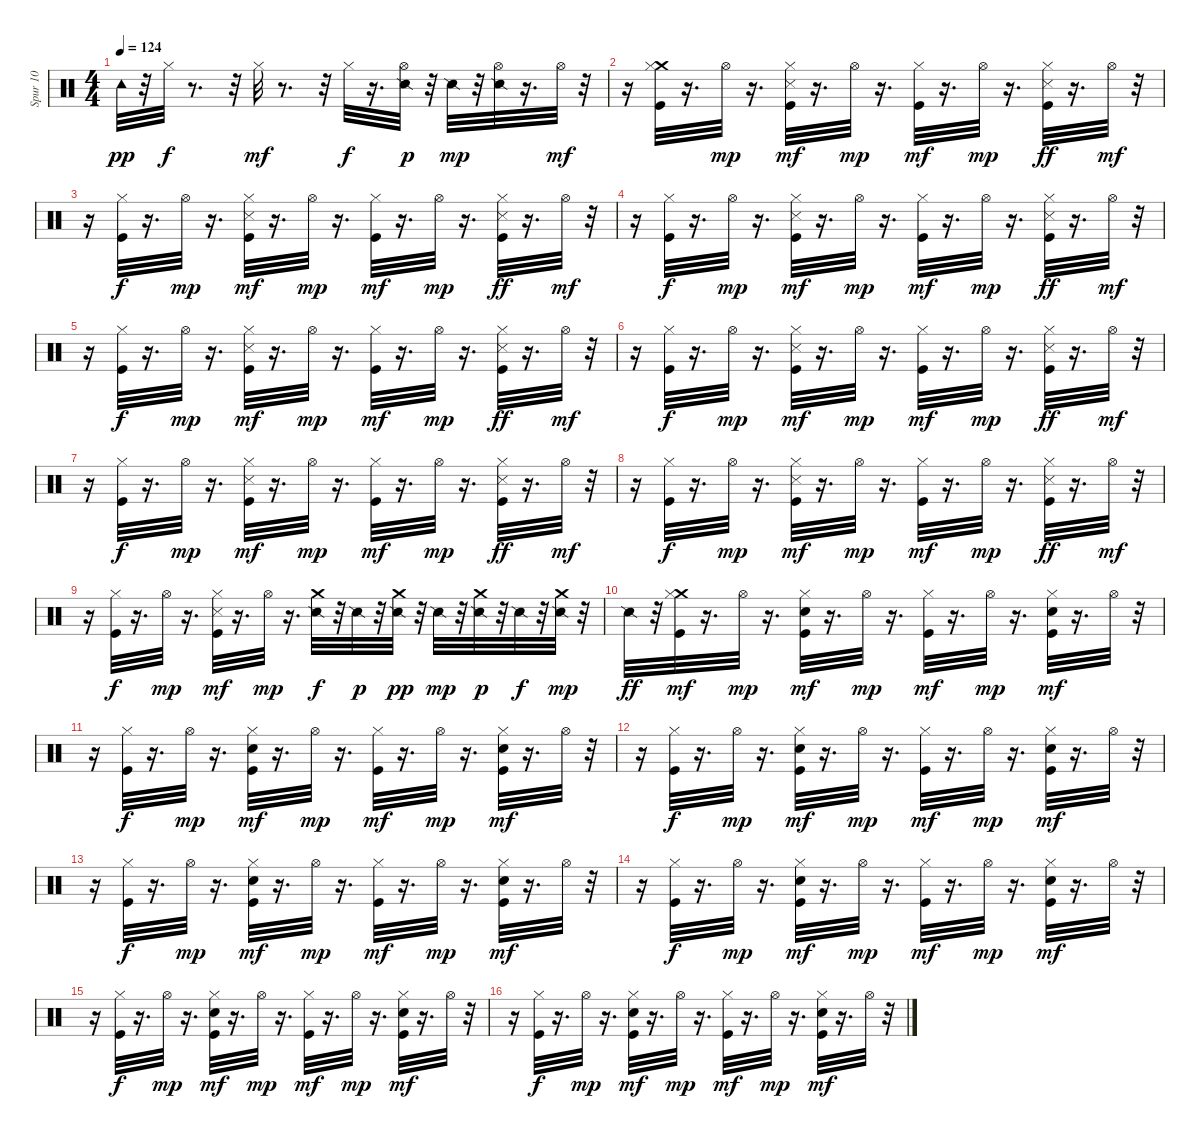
\track ("Spur 10" "Spur 10") {instrument percussion}
\staff {score}
\articulation defaults
\ts (4 4)
\tempo 124
\clef neutral
\ks c "Tambourine (hit)".32{dy pp}
r.32 "Hi-Hat (closed)".32{dy f} r.8{d} r.32 "Hi-Hat (closed)".32{dy mf} r.8{d} r.32 "Hi-Hat (closed)".32{dy f} r.16{d} ("Snare (side stick) 2" "Hi-Hat (open)").32{dy p balance 10} r.32 "Snare (side stick) 2".32{dy mp} r.32 ("Snare (side stick) 2" "Hi-Hat (open)").32{balance 6} r.16{d} "Hi-Hat (open)".32{dy mf balance 8} r.32 |
r.16 ("Crash medium (hit)" "Kick (hit)" "Hi-Hat (closed)").32 r.16{d} "Hi-Hat (open)".32{dy mp} r.16{d} ("Kick (hit)" "Snare (side stick) 3" "Hi-Hat (closed)").32{dy mf} r.16{d} "Hi-Hat (open)".32{dy mp} r.16{d} ("Kick (hit)" "Hi-Hat (closed)").32{dy mf} r.16{d} "Hi-Hat (open)".32{dy mp} r.16{d} ("Kick (hit)" "Snare (side stick) 3" "Hi-Hat (closed)").32{dy ff} r.16{d} "Hi-Hat (open)".32{dy mf} r.32 |
r.16 ("Kick (hit)" "Hi-Hat (closed)").32{dy f} r.16{d} "Hi-Hat (open)".32{dy mp} r.16{d} ("Kick (hit)" "Snare (side stick) 3" "Hi-Hat (closed)").32{dy mf} r.16{d} "Hi-Hat (open)".32{dy mp} r.16{d} ("Kick (hit)" "Hi-Hat (closed)").32{dy mf} r.16{d} "Hi-Hat (open)".32{dy mp} r.16{d} ("Kick (hit)" "Snare (side stick) 3" "Hi-Hat (closed)").32{dy ff} r.16{d} "Hi-Hat (open)".32{dy mf} r.32 |
r.16 ("Kick (hit)" "Hi-Hat (closed)").32{dy f} r.16{d} "Hi-Hat (open)".32{dy mp} r.16{d} ("Kick (hit)" "Snare (side stick) 3" "Hi-Hat (closed)").32{dy mf} r.16{d} "Hi-Hat (open)".32{dy mp} r.16{d} ("Kick (hit)" "Hi-Hat (closed)").32{dy mf} r.16{d} "Hi-Hat (open)".32{dy mp} r.16{d} ("Kick (hit)" "Snare (side stick) 3" "Hi-Hat (closed)").32{dy ff} r.16{d} "Hi-Hat (open)".32{dy mf} r.32 |
r.16 ("Kick (hit)" "Hi-Hat (closed)").32{dy f} r.16{d} "Hi-Hat (open)".32{dy mp} r.16{d} ("Kick (hit)" "Snare (side stick) 3" "Hi-Hat (closed)").32{dy mf} r.16{d} "Hi-Hat (open)".32{dy mp} r.16{d} ("Kick (hit)" "Hi-Hat (closed)").32{dy mf} r.16{d} "Hi-Hat (open)".32{dy mp} r.16{d} ("Kick (hit)" "Snare (side stick) 3" "Hi-Hat (closed)").32{dy ff} r.16{d} "Hi-Hat (open)".32{dy mf} r.32 |
r.16 ("Kick (hit)" "Hi-Hat (closed)").32{dy f} r.16{d} "Hi-Hat (open)".32{dy mp} r.16{d} ("Kick (hit)" "Snare (side stick) 3" "Hi-Hat (closed)").32{dy mf} r.16{d} "Hi-Hat (open)".32{dy mp} r.16{d} ("Kick (hit)" "Hi-Hat (closed)").32{dy mf} r.16{d} "Hi-Hat (open)".32{dy mp} r.16{d} ("Kick (hit)" "Snare (side stick) 3" "Hi-Hat (closed)").32{dy ff} r.16{d} "Hi-Hat (open)".32{dy mf} r.32 |
r.16 ("Kick (hit)" "Hi-Hat (closed)").32{dy f} r.16{d} "Hi-Hat (open)".32{dy mp} r.16{d} ("Kick (hit)" "Snare (side stick) 3" "Hi-Hat (closed)").32{dy mf} r.16{d} "Hi-Hat (open)".32{dy mp} r.16{d} ("Kick (hit)" "Hi-Hat (closed)").32{dy mf} r.16{d} "Hi-Hat (open)".32{dy mp} r.16{d} ("Kick (hit)" "Snare (side stick) 3" "Hi-Hat (closed)").32{dy ff} r.16{d} "Hi-Hat (open)".32{dy mf} r.32 |
r.16 ("Kick (hit)" "Hi-Hat (closed)").32{dy f} r.16{d} "Hi-Hat (open)".32{dy mp} r.16{d} ("Kick (hit)" "Snare (side stick) 3" "Hi-Hat (closed)").32{dy mf} r.16{d} "Hi-Hat (open)".32{dy mp} r.16{d} ("Kick (hit)" "Hi-Hat (closed)").32{dy mf} r.16{d} "Hi-Hat (open)".32{dy mp} r.16{d} ("Kick (hit)" "Snare (side stick) 3" "Hi-Hat (closed)").32{dy ff} r.16{d} "Hi-Hat (open)".32{dy mf} r.32 |
r.16 ("Kick (hit)" "Hi-Hat (closed)").32{dy f} r.16{d} "Hi-Hat (open)".32{dy mp} r.16{d} ("Kick (hit)" "Snare (side stick) 3" "Hi-Hat (closed)").32{dy mf} r.16{d} "Hi-Hat (open)".32{dy mp} r.16{d} ("Snare (side stick) 2" "Crash medium (hit)").32{dy f balance 12} r.32 "Snare (side stick) 2".32{dy p} r.32 ("Snare (side stick) 2" "Crash medium (hit)").32{dy pp balance 10} r.32 "Snare (side stick) 2".32{dy mp} r.32 ("Snare (side stick) 2" "Crash medium (hit)").32{dy p balance 6} r.32 "Snare (side stick) 2".32{dy f} r.32 ("Snare (side stick) 2" "Crash medium (hit)").32{dy mp balance 2} r.32 |
"Snare (side stick) 2".32{dy ff} r.32 ("Crash medium (hit)" "Kick (hit)" "Hi-Hat (closed)").32{dy mf balance 8} r.16{d} "Hi-Hat (open)".32{dy mp} r.16{d} ("Kick (hit)" "Snare (hit) 2" "Hi-Hat (closed)").32{dy mf} r.16{d} "Hi-Hat (open)".32{dy mp} r.16{d} ("Kick (hit)" "Hi-Hat (closed)").32{dy mf} r.16{d} "Hi-Hat (open)".32{dy mp} r.16{d} ("Kick (hit)" "Snare (hit) 2" "Hi-Hat (closed)").32{dy mf} r.16{d} "Hi-Hat (open)".32 r.32 |
r.16 ("Kick (hit)" "Hi-Hat (closed)").32{dy f} r.16{d} "Hi-Hat (open)".32{dy mp} r.16{d} ("Kick (hit)" "Snare (hit) 2" "Hi-Hat (closed)").32{dy mf} r.16{d} "Hi-Hat (open)".32{dy mp} r.16{d} ("Kick (hit)" "Hi-Hat (closed)").32{dy mf} r.16{d} "Hi-Hat (open)".32{dy mp} r.16{d} ("Kick (hit)" "Snare (hit) 2" "Hi-Hat (closed)").32{dy mf} r.16{d} "Hi-Hat (open)".32 r.32 |
r.16 ("Kick (hit)" "Hi-Hat (closed)").32{dy f} r.16{d} "Hi-Hat (open)".32{dy mp} r.16{d} ("Kick (hit)" "Snare (hit) 2" "Hi-Hat (closed)").32{dy mf} r.16{d} "Hi-Hat (open)".32{dy mp} r.16{d} ("Kick (hit)" "Hi-Hat (closed)").32{dy mf} r.16{d} "Hi-Hat (open)".32{dy mp} r.16{d} ("Kick (hit)" "Snare (hit) 2" "Hi-Hat (closed)").32{dy mf} r.16{d} "Hi-Hat (open)".32 r.32 |
r.16 ("Kick (hit)" "Hi-Hat (closed)").32{dy f} r.16{d} "Hi-Hat (open)".32{dy mp} r.16{d} ("Kick (hit)" "Snare (hit) 2" "Hi-Hat (closed)").32{dy mf} r.16{d} "Hi-Hat (open)".32{dy mp} r.16{d} ("Kick (hit)" "Hi-Hat (closed)").32{dy mf} r.16{d} "Hi-Hat (open)".32{dy mp} r.16{d} ("Kick (hit)" "Snare (hit) 2" "Hi-Hat (closed)").32{dy mf} r.16{d} "Hi-Hat (open)".32 r.32 |
r.16 ("Kick (hit)" "Hi-Hat (closed)").32{dy f} r.16{d} "Hi-Hat (open)".32{dy mp} r.16{d} ("Kick (hit)" "Snare (hit) 2" "Hi-Hat (closed)").32{dy mf} r.16{d} "Hi-Hat (open)".32{dy mp} r.16{d} ("Kick (hit)" "Hi-Hat (closed)").32{dy mf} r.16{d} "Hi-Hat (open)".32{dy mp} r.16{d} ("Kick (hit)" "Snare (hit) 2" "Hi-Hat (closed)").32{dy mf} r.16{d} "Hi-Hat (open)".32 r.32 |
r.16 ("Kick (hit)" "Hi-Hat (closed)").32{dy f} r.16{d} "Hi-Hat (open)".32{dy mp} r.16{d} ("Kick (hit)" "Snare (hit) 2" "Hi-Hat (closed)").32{dy mf} r.16{d} "Hi-Hat (open)".32{dy mp} r.16{d} ("Kick (hit)" "Hi-Hat (closed)").32{dy mf} r.16{d} "Hi-Hat (open)".32{dy mp} r.16{d} ("Kick (hit)" "Snare (hit) 2" "Hi-Hat (closed)").32{dy mf} r.16{d} "Hi-Hat (open)".32 r.32 |
r.16 ("Kick (hit)" "Hi-Hat (closed)").32{dy f} r.16{d} "Hi-Hat (open)".32{dy mp} r.16{d} ("Kick (hit)" "Snare (hit) 2" "Hi-Hat (closed)").32{dy mf} r.16{d} "Hi-Hat (open)".32{dy mp} r.16{d} ("Kick (hit)" "Hi-Hat (closed)").32{dy mf} r.16{d} "Hi-Hat (open)".32{dy mp} r.16{d} ("Kick (hit)" "Snare (hit) 2" "Hi-Hat (closed)").32{dy mf} r.16{d} "Hi-Hat (open)".32 r.32
